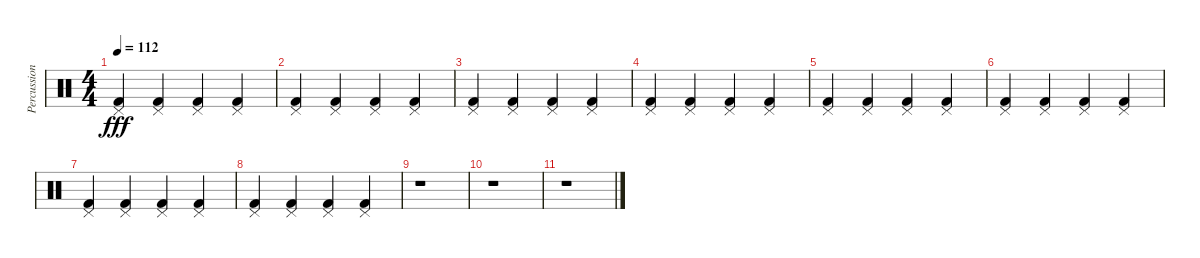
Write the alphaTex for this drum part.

\track ("Percussions" "Percussion") {instrument percussion}
\staff {score}
\articulation defaults
\ts (4 4)
\tempo 112
\clef neutral
\ks c
("Pedal Hi-Hat (hit)" "Kick (hit) 2").4{dy fff} ("Pedal Hi-Hat (hit)" "Kick (hit) 2").4 ("Pedal Hi-Hat (hit)" "Kick (hit) 2").4 ("Pedal Hi-Hat (hit)" "Kick (hit) 2").4 |
("Pedal Hi-Hat (hit)" "Kick (hit) 2").4 ("Pedal Hi-Hat (hit)" "Kick (hit) 2").4 ("Pedal Hi-Hat (hit)" "Kick (hit) 2").4 ("Pedal Hi-Hat (hit)" "Kick (hit) 2").4 |
("Pedal Hi-Hat (hit)" "Kick (hit) 2").4 ("Pedal Hi-Hat (hit)" "Kick (hit) 2").4 ("Pedal Hi-Hat (hit)" "Kick (hit) 2").4 ("Pedal Hi-Hat (hit)" "Kick (hit) 2").4 |
("Pedal Hi-Hat (hit)" "Kick (hit) 2").4 ("Pedal Hi-Hat (hit)" "Kick (hit) 2").4 ("Pedal Hi-Hat (hit)" "Kick (hit) 2").4 ("Pedal Hi-Hat (hit)" "Kick (hit) 2").4 |
("Pedal Hi-Hat (hit)" "Kick (hit) 2").4 ("Pedal Hi-Hat (hit)" "Kick (hit) 2").4 ("Pedal Hi-Hat (hit)" "Kick (hit) 2").4 ("Pedal Hi-Hat (hit)" "Kick (hit) 2").4 |
("Pedal Hi-Hat (hit)" "Kick (hit) 2").4 ("Pedal Hi-Hat (hit)" "Kick (hit) 2").4 ("Pedal Hi-Hat (hit)" "Kick (hit) 2").4 ("Pedal Hi-Hat (hit)" "Kick (hit) 2").4 |
("Pedal Hi-Hat (hit)" "Kick (hit) 2").4 ("Pedal Hi-Hat (hit)" "Kick (hit) 2").4 ("Pedal Hi-Hat (hit)" "Kick (hit) 2").4 ("Pedal Hi-Hat (hit)" "Kick (hit) 2").4 |
("Pedal Hi-Hat (hit)" "Kick (hit) 2").4 ("Pedal Hi-Hat (hit)" "Kick (hit) 2").4 ("Pedal Hi-Hat (hit)" "Kick (hit) 2").4 ("Pedal Hi-Hat (hit)" "Kick (hit) 2").4 |
r.1 |
r.1 |
r.1
